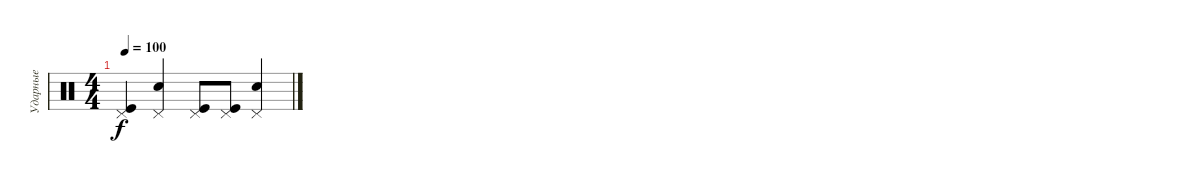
\track ("Ударные" "Ударные") {instrument percussion}
\staff {score}
\articulation defaults
\ts (4 4)
\tempo 100
\clef neutral
\ks c
("Pedal Hi-Hat (hit)" "Kick (hit)").4{dy f} ("Pedal Hi-Hat (hit)" "Snare (hit) 2").4 ("Pedal Hi-Hat (hit)" "Kick (hit)").8 ("Pedal Hi-Hat (hit)" "Kick (hit)").8 ("Pedal Hi-Hat (hit)" "Snare (hit) 2").4
